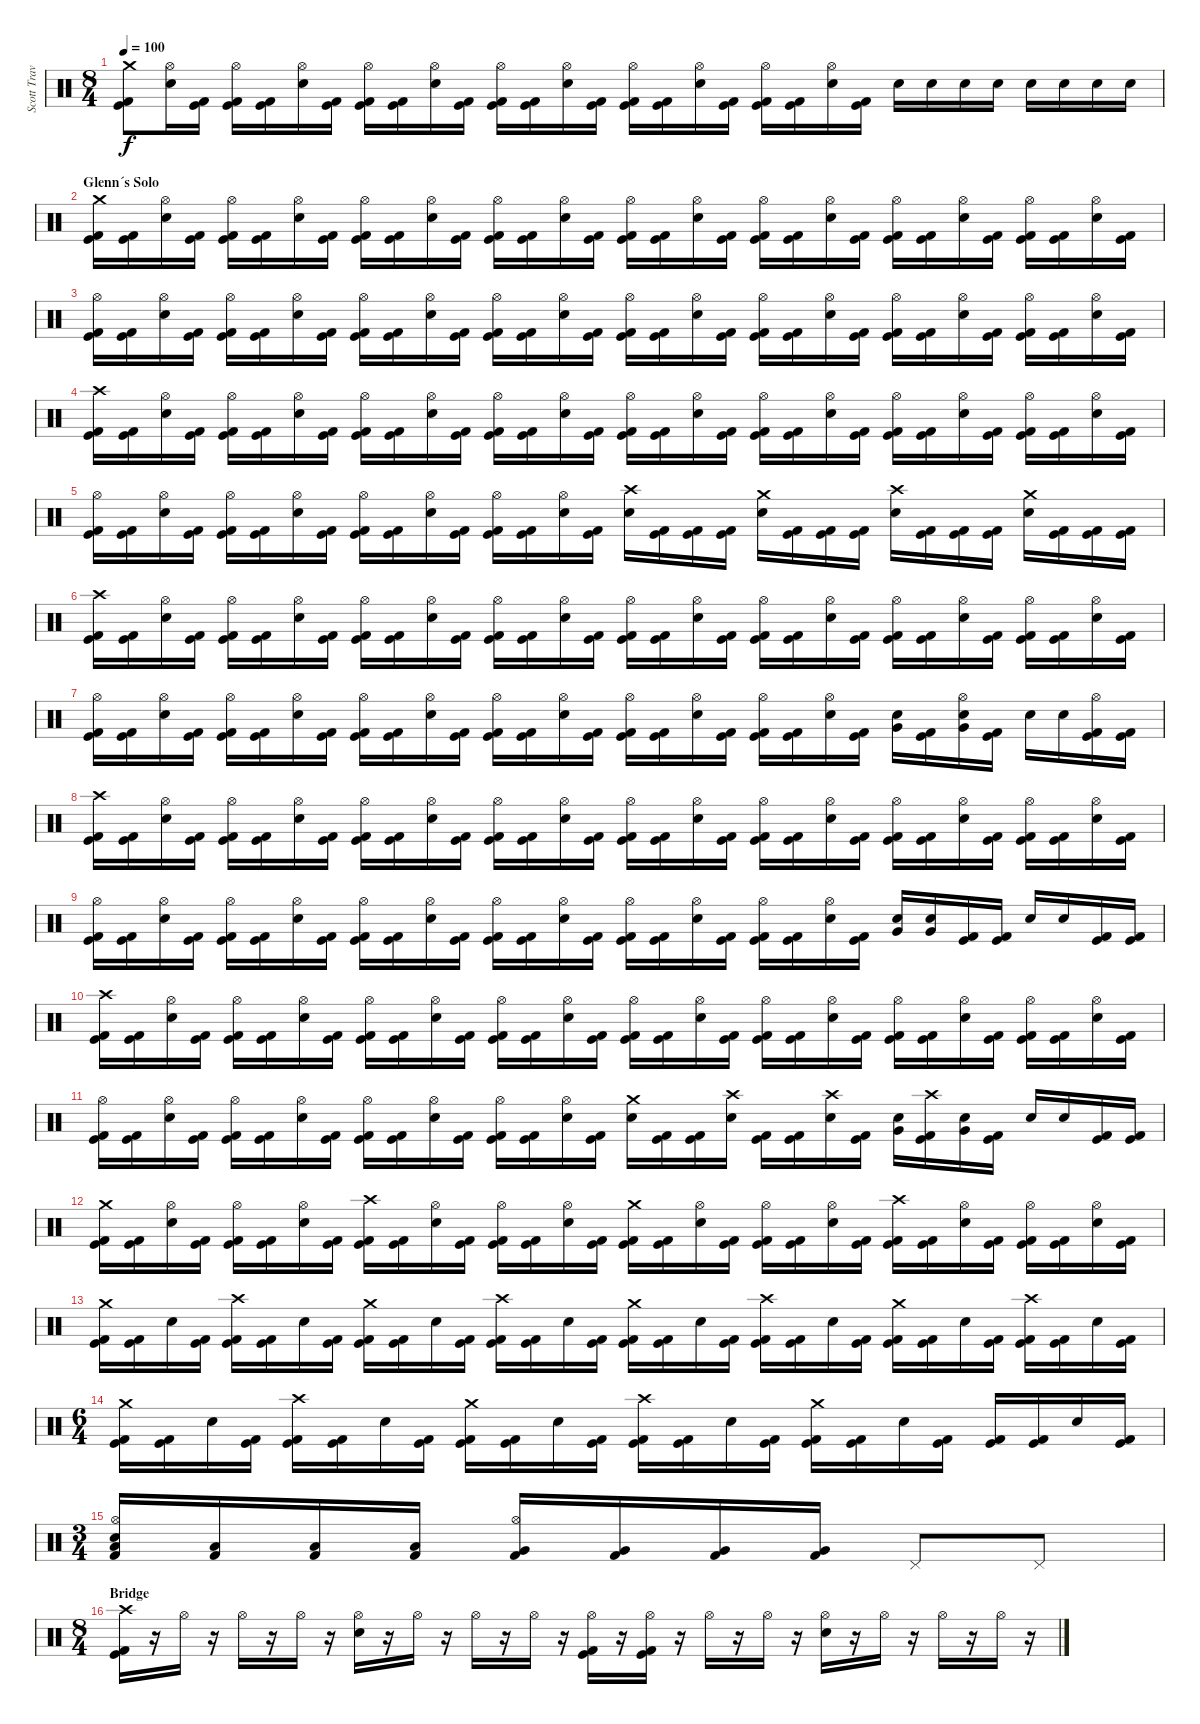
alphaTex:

\track ("Scott Travis" "Scott Trav") {instrument percussion}
\staff {score}
\articulation defaults
\ts (8 4)
\tempo 100
\clef neutral
\ks c
("Crash medium (hit)" "Kick (hit)" "Kick (hit) 2").8{dy f} ("Hi-Hat (open)" "Electric Snare (hit)").16 ("Kick (hit) 2" "Kick (hit)").16 ("Hi-Hat (open)" "Kick (hit) 2" "Kick (hit)").16 ("Kick (hit) 2" "Kick (hit)").16 ("Hi-Hat (open)" "Electric Snare (hit)").16 ("Kick (hit) 2" "Kick (hit)").16 ("Hi-Hat (open)" "Kick (hit) 2" "Kick (hit)").16 ("Kick (hit) 2" "Kick (hit)").16 ("Hi-Hat (open)" "Electric Snare (hit)").16 ("Kick (hit) 2" "Kick (hit)").16 ("Hi-Hat (open)" "Kick (hit) 2" "Kick (hit)").16 ("Kick (hit) 2" "Kick (hit)").16 ("Hi-Hat (open)" "Electric Snare (hit)").16 ("Kick (hit) 2" "Kick (hit)").16 ("Hi-Hat (open)" "Kick (hit) 2" "Kick (hit)").16 ("Kick (hit) 2" "Kick (hit)").16 ("Hi-Hat (open)" "Electric Snare (hit)").16 ("Kick (hit) 2" "Kick (hit)").16 ("Hi-Hat (open)" "Kick (hit) 2" "Kick (hit)").16 ("Kick (hit) 2" "Kick (hit)").16 ("Hi-Hat (open)" "Electric Snare (hit)").16 ("Kick (hit) 2" "Kick (hit)").16 "Electric Snare (hit)".16 "Electric Snare (hit)".16 "Electric Snare (hit)".16 "Electric Snare (hit)".16 "Electric Snare (hit)".16 "Electric Snare (hit)".16 "Electric Snare (hit)".16 "Electric Snare (hit)".16 |
\section ("" "Glenn´s Solo")
("Crash medium (hit)" "Kick (hit) 2" "Kick (hit)").16 ("Kick (hit) 2" "Kick (hit)").16 ("Hi-Hat (open)" "Electric Snare (hit)").16 ("Kick (hit) 2" "Kick (hit)").16 ("Hi-Hat (open)" "Kick (hit) 2" "Kick (hit)").16 ("Kick (hit) 2" "Kick (hit)").16 ("Hi-Hat (open)" "Electric Snare (hit)").16 ("Kick (hit) 2" "Kick (hit)").16 ("Hi-Hat (open)" "Kick (hit) 2" "Kick (hit)").16 ("Kick (hit) 2" "Kick (hit)").16 ("Hi-Hat (open)" "Electric Snare (hit)").16 ("Kick (hit) 2" "Kick (hit)").16 ("Hi-Hat (open)" "Kick (hit) 2" "Kick (hit)").16 ("Kick (hit) 2" "Kick (hit)").16 ("Hi-Hat (open)" "Electric Snare (hit)").16 ("Kick (hit) 2" "Kick (hit)").16 ("Hi-Hat (open)" "Kick (hit) 2" "Kick (hit)").16 ("Kick (hit) 2" "Kick (hit)").16 ("Hi-Hat (open)" "Electric Snare (hit)").16 ("Kick (hit) 2" "Kick (hit)").16 ("Hi-Hat (open)" "Kick (hit) 2" "Kick (hit)").16 ("Kick (hit) 2" "Kick (hit)").16 ("Hi-Hat (open)" "Electric Snare (hit)").16 ("Kick (hit) 2" "Kick (hit)").16 ("Hi-Hat (open)" "Kick (hit) 2" "Kick (hit)").16 ("Kick (hit) 2" "Kick (hit)").16 ("Hi-Hat (open)" "Electric Snare (hit)").16 ("Kick (hit) 2" "Kick (hit)").16 ("Hi-Hat (open)" "Kick (hit) 2" "Kick (hit)").16 ("Kick (hit) 2" "Kick (hit)").16 ("Hi-Hat (open)" "Electric Snare (hit)").16 ("Kick (hit) 2" "Kick (hit)").16 |
("Hi-Hat (open)" "Kick (hit) 2" "Kick (hit)").16 ("Kick (hit) 2" "Kick (hit)").16 ("Hi-Hat (open)" "Electric Snare (hit)").16 ("Kick (hit) 2" "Kick (hit)").16 ("Hi-Hat (open)" "Kick (hit) 2" "Kick (hit)").16 ("Kick (hit) 2" "Kick (hit)").16 ("Hi-Hat (open)" "Electric Snare (hit)").16 ("Kick (hit) 2" "Kick (hit)").16 ("Hi-Hat (open)" "Kick (hit) 2" "Kick (hit)").16 ("Kick (hit) 2" "Kick (hit)").16 ("Hi-Hat (open)" "Electric Snare (hit)").16 ("Kick (hit) 2" "Kick (hit)").16 ("Hi-Hat (open)" "Kick (hit) 2" "Kick (hit)").16 ("Kick (hit) 2" "Kick (hit)").16 ("Hi-Hat (open)" "Electric Snare (hit)").16 ("Kick (hit) 2" "Kick (hit)").16 ("Hi-Hat (open)" "Kick (hit) 2" "Kick (hit)").16 ("Kick (hit) 2" "Kick (hit)").16 ("Hi-Hat (open)" "Electric Snare (hit)").16 ("Kick (hit) 2" "Kick (hit)").16 ("Hi-Hat (open)" "Kick (hit) 2" "Kick (hit)").16 ("Kick (hit) 2" "Kick (hit)").16 ("Hi-Hat (open)" "Electric Snare (hit)").16 ("Kick (hit) 2" "Kick (hit)").16 ("Hi-Hat (open)" "Kick (hit) 2" "Kick (hit)").16 ("Kick (hit) 2" "Kick (hit)").16 ("Hi-Hat (open)" "Electric Snare (hit)").16 ("Kick (hit) 2" "Kick (hit)").16 ("Hi-Hat (open)" "Kick (hit) 2" "Kick (hit)").16 ("Kick (hit) 2" "Kick (hit)").16 ("Hi-Hat (open)" "Electric Snare (hit)").16 ("Kick (hit) 2" "Kick (hit)").16 |
("Crash high (hit)" "Kick (hit) 2" "Kick (hit)").16 ("Kick (hit) 2" "Kick (hit)").16 ("Hi-Hat (open)" "Electric Snare (hit)").16 ("Kick (hit) 2" "Kick (hit)").16 ("Hi-Hat (open)" "Kick (hit) 2" "Kick (hit)").16 ("Kick (hit) 2" "Kick (hit)").16 ("Hi-Hat (open)" "Electric Snare (hit)").16 ("Kick (hit) 2" "Kick (hit)").16 ("Hi-Hat (open)" "Kick (hit) 2" "Kick (hit)").16 ("Kick (hit) 2" "Kick (hit)").16 ("Hi-Hat (open)" "Electric Snare (hit)").16 ("Kick (hit) 2" "Kick (hit)").16 ("Hi-Hat (open)" "Kick (hit) 2" "Kick (hit)").16 ("Kick (hit) 2" "Kick (hit)").16 ("Hi-Hat (open)" "Electric Snare (hit)").16 ("Kick (hit) 2" "Kick (hit)").16 ("Hi-Hat (open)" "Kick (hit) 2" "Kick (hit)").16 ("Kick (hit) 2" "Kick (hit)").16 ("Hi-Hat (open)" "Electric Snare (hit)").16 ("Kick (hit) 2" "Kick (hit)").16 ("Hi-Hat (open)" "Kick (hit) 2" "Kick (hit)").16 ("Kick (hit) 2" "Kick (hit)").16 ("Hi-Hat (open)" "Electric Snare (hit)").16 ("Kick (hit) 2" "Kick (hit)").16 ("Hi-Hat (open)" "Kick (hit) 2" "Kick (hit)").16 ("Kick (hit) 2" "Kick (hit)").16 ("Hi-Hat (open)" "Electric Snare (hit)").16 ("Kick (hit) 2" "Kick (hit)").16 ("Hi-Hat (open)" "Kick (hit) 2" "Kick (hit)").16 ("Kick (hit) 2" "Kick (hit)").16 ("Hi-Hat (open)" "Electric Snare (hit)").16 ("Kick (hit) 2" "Kick (hit)").16 |
("Hi-Hat (open)" "Kick (hit) 2" "Kick (hit)").16 ("Kick (hit) 2" "Kick (hit)").16 ("Hi-Hat (open)" "Electric Snare (hit)").16 ("Kick (hit) 2" "Kick (hit)").16 ("Hi-Hat (open)" "Kick (hit) 2" "Kick (hit)").16 ("Kick (hit) 2" "Kick (hit)").16 ("Hi-Hat (open)" "Electric Snare (hit)").16 ("Kick (hit) 2" "Kick (hit)").16 ("Hi-Hat (open)" "Kick (hit) 2" "Kick (hit)").16 ("Kick (hit) 2" "Kick (hit)").16 ("Hi-Hat (open)" "Electric Snare (hit)").16 ("Kick (hit) 2" "Kick (hit)").16 ("Hi-Hat (open)" "Kick (hit) 2" "Kick (hit)").16 ("Kick (hit) 2" "Kick (hit)").16 ("Hi-Hat (open)" "Electric Snare (hit)").16 ("Kick (hit) 2" "Kick (hit)").16 ("Crash high (hit)" "Electric Snare (hit)").16 ("Kick (hit) 2" "Kick (hit)").16 ("Kick (hit) 2" "Kick (hit)").16 ("Kick (hit) 2" "Kick (hit)").16 ("Crash medium (hit)" "Electric Snare (hit)").16 ("Kick (hit) 2" "Kick (hit)").16 ("Kick (hit)" "Kick (hit) 2").16 ("Kick (hit) 2" "Kick (hit)").16 ("Crash high (hit)" "Electric Snare (hit)").16 ("Kick (hit) 2" "Kick (hit)").16 ("Kick (hit)" "Kick (hit) 2").16 ("Kick (hit) 2" "Kick (hit)").16 ("Crash medium (hit)" "Electric Snare (hit)").16 ("Kick (hit) 2" "Kick (hit)").16 ("Kick (hit) 2" "Kick (hit)").16 ("Kick (hit) 2" "Kick (hit)").16 |
("Crash high (hit)" "Kick (hit) 2" "Kick (hit)").16 ("Kick (hit) 2" "Kick (hit)").16 ("Hi-Hat (open)" "Electric Snare (hit)").16 ("Kick (hit) 2" "Kick (hit)").16 ("Hi-Hat (open)" "Kick (hit) 2" "Kick (hit)").16 ("Kick (hit) 2" "Kick (hit)").16 ("Hi-Hat (open)" "Electric Snare (hit)").16 ("Kick (hit) 2" "Kick (hit)").16 ("Hi-Hat (open)" "Kick (hit) 2" "Kick (hit)").16 ("Kick (hit) 2" "Kick (hit)").16 ("Hi-Hat (open)" "Electric Snare (hit)").16 ("Kick (hit) 2" "Kick (hit)").16 ("Hi-Hat (open)" "Kick (hit) 2" "Kick (hit)").16 ("Kick (hit) 2" "Kick (hit)").16 ("Hi-Hat (open)" "Electric Snare (hit)").16 ("Kick (hit) 2" "Kick (hit)").16 ("Hi-Hat (open)" "Kick (hit) 2" "Kick (hit)").16 ("Kick (hit) 2" "Kick (hit)").16 ("Hi-Hat (open)" "Electric Snare (hit)").16 ("Kick (hit) 2" "Kick (hit)").16 ("Hi-Hat (open)" "Kick (hit) 2" "Kick (hit)").16 ("Kick (hit) 2" "Kick (hit)").16 ("Hi-Hat (open)" "Electric Snare (hit)").16 ("Kick (hit) 2" "Kick (hit)").16 ("Hi-Hat (open)" "Kick (hit) 2" "Kick (hit)").16 ("Kick (hit) 2" "Kick (hit)").16 ("Hi-Hat (open)" "Electric Snare (hit)").16 ("Kick (hit) 2" "Kick (hit)").16 ("Hi-Hat (open)" "Kick (hit) 2" "Kick (hit)").16 ("Kick (hit) 2" "Kick (hit)").16 ("Hi-Hat (open)" "Electric Snare (hit)").16 ("Kick (hit) 2" "Kick (hit)").16 |
("Hi-Hat (open)" "Kick (hit) 2" "Kick (hit)").16 ("Kick (hit) 2" "Kick (hit)").16 ("Hi-Hat (open)" "Electric Snare (hit)").16 ("Kick (hit) 2" "Kick (hit)").16 ("Hi-Hat (open)" "Kick (hit) 2" "Kick (hit)").16 ("Kick (hit) 2" "Kick (hit)").16 ("Hi-Hat (open)" "Electric Snare (hit)").16 ("Kick (hit) 2" "Kick (hit)").16 ("Hi-Hat (open)" "Kick (hit) 2" "Kick (hit)").16 ("Kick (hit) 2" "Kick (hit)").16 ("Hi-Hat (open)" "Electric Snare (hit)").16 ("Kick (hit) 2" "Kick (hit)").16 ("Hi-Hat (open)" "Kick (hit) 2" "Kick (hit)").16 ("Kick (hit) 2" "Kick (hit)").16 ("Hi-Hat (open)" "Electric Snare (hit)").16 ("Kick (hit) 2" "Kick (hit)").16 ("Hi-Hat (open)" "Kick (hit) 2" "Kick (hit)").16 ("Kick (hit) 2" "Kick (hit)").16 ("Hi-Hat (open)" "Electric Snare (hit)").16 ("Kick (hit) 2" "Kick (hit)").16 ("Hi-Hat (open)" "Kick (hit) 2" "Kick (hit)").16 ("Kick (hit) 2" "Kick (hit)").16 ("Hi-Hat (open)" "Electric Snare (hit)").16 ("Kick (hit) 2" "Kick (hit)").16 ("Electric Snare (hit)" "Very Low Tom (hit)").16 ("Kick (hit) 2" "Kick (hit)").16 ("Hi-Hat (open)" "Electric Snare (hit)" "Very Low Tom (hit)").16 ("Kick (hit) 2" "Kick (hit)").16 "Electric Snare (hit)".16 "Electric Snare (hit)".16 ("Hi-Hat (open)" "Kick (hit)" "Kick (hit) 2").16 ("Kick (hit) 2" "Kick (hit)").16 |
("Crash high (hit)" "Kick (hit) 2" "Kick (hit)").16 ("Kick (hit) 2" "Kick (hit)").16 ("Hi-Hat (open)" "Electric Snare (hit)").16 ("Kick (hit) 2" "Kick (hit)").16 ("Hi-Hat (open)" "Kick (hit) 2" "Kick (hit)").16 ("Kick (hit) 2" "Kick (hit)").16 ("Hi-Hat (open)" "Electric Snare (hit)").16 ("Kick (hit) 2" "Kick (hit)").16 ("Hi-Hat (open)" "Kick (hit) 2" "Kick (hit)").16 ("Kick (hit) 2" "Kick (hit)").16 ("Hi-Hat (open)" "Electric Snare (hit)").16 ("Kick (hit) 2" "Kick (hit)").16 ("Hi-Hat (open)" "Kick (hit) 2" "Kick (hit)").16 ("Kick (hit) 2" "Kick (hit)").16 ("Hi-Hat (open)" "Electric Snare (hit)").16 ("Kick (hit) 2" "Kick (hit)").16 ("Hi-Hat (open)" "Kick (hit) 2" "Kick (hit)").16 ("Kick (hit) 2" "Kick (hit)").16 ("Hi-Hat (open)" "Electric Snare (hit)").16 ("Kick (hit) 2" "Kick (hit)").16 ("Hi-Hat (open)" "Kick (hit) 2" "Kick (hit)").16 ("Kick (hit) 2" "Kick (hit)").16 ("Hi-Hat (open)" "Electric Snare (hit)").16 ("Kick (hit) 2" "Kick (hit)").16 ("Hi-Hat (open)" "Kick (hit) 2" "Kick (hit)").16 ("Kick (hit) 2" "Kick (hit)").16 ("Hi-Hat (open)" "Electric Snare (hit)").16 ("Kick (hit) 2" "Kick (hit)").16 ("Hi-Hat (open)" "Kick (hit) 2" "Kick (hit)").16 ("Kick (hit) 2" "Kick (hit)").16 ("Hi-Hat (open)" "Electric Snare (hit)").16 ("Kick (hit) 2" "Kick (hit)").16 |
("Hi-Hat (open)" "Kick (hit) 2" "Kick (hit)").16 ("Kick (hit) 2" "Kick (hit)").16 ("Hi-Hat (open)" "Electric Snare (hit)").16 ("Kick (hit) 2" "Kick (hit)").16 ("Hi-Hat (open)" "Kick (hit) 2" "Kick (hit)").16 ("Kick (hit) 2" "Kick (hit)").16 ("Hi-Hat (open)" "Electric Snare (hit)").16 ("Kick (hit) 2" "Kick (hit)").16 ("Hi-Hat (open)" "Kick (hit) 2" "Kick (hit)").16 ("Kick (hit) 2" "Kick (hit)").16 ("Hi-Hat (open)" "Electric Snare (hit)").16 ("Kick (hit) 2" "Kick (hit)").16 ("Hi-Hat (open)" "Kick (hit) 2" "Kick (hit)").16 ("Kick (hit) 2" "Kick (hit)").16 ("Hi-Hat (open)" "Electric Snare (hit)").16 ("Kick (hit) 2" "Kick (hit)").16 ("Hi-Hat (open)" "Kick (hit) 2" "Kick (hit)").16 ("Kick (hit) 2" "Kick (hit)").16 ("Hi-Hat (open)" "Electric Snare (hit)").16 ("Kick (hit) 2" "Kick (hit)").16 ("Hi-Hat (open)" "Kick (hit) 2" "Kick (hit)").16 ("Kick (hit) 2" "Kick (hit)").16 ("Hi-Hat (open)" "Electric Snare (hit)").16 ("Kick (hit) 2" "Kick (hit)").16 ("Electric Snare (hit)" "Very Low Tom (hit)").16 ("Electric Snare (hit)" "Very Low Tom (hit)").16 ("Kick (hit)" "Kick (hit) 2").16 ("Kick (hit) 2" "Kick (hit)").16 "Electric Snare (hit)".16 "Electric Snare (hit)".16 ("Kick (hit)" "Kick (hit) 2").16 ("Kick (hit) 2" "Kick (hit)").16 |
("Crash high (hit)" "Kick (hit) 2" "Kick (hit)").16 ("Kick (hit) 2" "Kick (hit)").16 ("Hi-Hat (open)" "Electric Snare (hit)").16 ("Kick (hit) 2" "Kick (hit)").16 ("Hi-Hat (open)" "Kick (hit) 2" "Kick (hit)").16 ("Kick (hit) 2" "Kick (hit)").16 ("Hi-Hat (open)" "Electric Snare (hit)").16 ("Kick (hit) 2" "Kick (hit)").16 ("Hi-Hat (open)" "Kick (hit) 2" "Kick (hit)").16 ("Kick (hit) 2" "Kick (hit)").16 ("Hi-Hat (open)" "Electric Snare (hit)").16 ("Kick (hit) 2" "Kick (hit)").16 ("Hi-Hat (open)" "Kick (hit) 2" "Kick (hit)").16 ("Kick (hit) 2" "Kick (hit)").16 ("Hi-Hat (open)" "Electric Snare (hit)").16 ("Kick (hit) 2" "Kick (hit)").16 ("Hi-Hat (open)" "Kick (hit) 2" "Kick (hit)").16 ("Kick (hit) 2" "Kick (hit)").16 ("Hi-Hat (open)" "Electric Snare (hit)").16 ("Kick (hit) 2" "Kick (hit)").16 ("Hi-Hat (open)" "Kick (hit) 2" "Kick (hit)").16 ("Kick (hit) 2" "Kick (hit)").16 ("Hi-Hat (open)" "Electric Snare (hit)").16 ("Kick (hit) 2" "Kick (hit)").16 ("Hi-Hat (open)" "Kick (hit) 2" "Kick (hit)").16 ("Kick (hit) 2" "Kick (hit)").16 ("Hi-Hat (open)" "Electric Snare (hit)").16 ("Kick (hit) 2" "Kick (hit)").16 ("Hi-Hat (open)" "Kick (hit) 2" "Kick (hit)").16 ("Kick (hit) 2" "Kick (hit)").16 ("Hi-Hat (open)" "Electric Snare (hit)").16 ("Kick (hit) 2" "Kick (hit)").16 |
("Hi-Hat (open)" "Kick (hit) 2" "Kick (hit)").16 ("Kick (hit) 2" "Kick (hit)").16 ("Hi-Hat (open)" "Electric Snare (hit)").16 ("Kick (hit) 2" "Kick (hit)").16 ("Hi-Hat (open)" "Kick (hit) 2" "Kick (hit)").16 ("Kick (hit) 2" "Kick (hit)").16 ("Hi-Hat (open)" "Electric Snare (hit)").16 ("Kick (hit) 2" "Kick (hit)").16 ("Hi-Hat (open)" "Kick (hit) 2" "Kick (hit)").16 ("Kick (hit) 2" "Kick (hit)").16 ("Hi-Hat (open)" "Electric Snare (hit)").16 ("Kick (hit) 2" "Kick (hit)").16 ("Hi-Hat (open)" "Kick (hit) 2" "Kick (hit)").16 ("Kick (hit) 2" "Kick (hit)").16 ("Hi-Hat (open)" "Electric Snare (hit)").16 ("Kick (hit) 2" "Kick (hit)").16 ("Crash medium (hit)" "Electric Snare (hit)").16 ("Kick (hit) 2" "Kick (hit)").16 ("Kick (hit)" "Kick (hit) 2").16 ("Crash high (hit)" "Electric Snare (hit)").16 ("Kick (hit) 2" "Kick (hit)").16 ("Kick (hit) 2" "Kick (hit)").16 ("Crash high (hit)" "Electric Snare (hit)").16 ("Kick (hit) 2" "Kick (hit)").16 ("Electric Snare (hit)" "Very Low Tom (hit)").16 ("Crash high (hit)" "Kick (hit) 2" "Kick (hit)").16 ("Electric Snare (hit)" "Very Low Tom (hit)").16 ("Kick (hit) 2" "Kick (hit)").16 "Electric Snare (hit)".16 "Electric Snare (hit)".16 ("Kick (hit)" "Kick (hit) 2").16 ("Kick (hit) 2" "Kick (hit)").16 |
("Crash medium (hit)" "Kick (hit) 2" "Kick (hit)").16 ("Kick (hit) 2" "Kick (hit)").16 ("Hi-Hat (open)" "Electric Snare (hit)").16 ("Kick (hit) 2" "Kick (hit)").16 ("Hi-Hat (open)" "Kick (hit) 2" "Kick (hit)").16 ("Kick (hit) 2" "Kick (hit)").16 ("Hi-Hat (open)" "Electric Snare (hit)").16 ("Kick (hit) 2" "Kick (hit)").16 ("Crash high (hit)" "Kick (hit) 2" "Kick (hit)").16 ("Kick (hit) 2" "Kick (hit)").16 ("Hi-Hat (open)" "Electric Snare (hit)").16 ("Kick (hit) 2" "Kick (hit)").16 ("Hi-Hat (open)" "Kick (hit) 2" "Kick (hit)").16 ("Kick (hit) 2" "Kick (hit)").16 ("Hi-Hat (open)" "Electric Snare (hit)").16 ("Kick (hit) 2" "Kick (hit)").16 ("Crash medium (hit)" "Kick (hit) 2" "Kick (hit)").16 ("Kick (hit) 2" "Kick (hit)").16 ("Hi-Hat (open)" "Electric Snare (hit)").16 ("Kick (hit) 2" "Kick (hit)").16 ("Hi-Hat (open)" "Kick (hit) 2" "Kick (hit)").16 ("Kick (hit) 2" "Kick (hit)").16 ("Hi-Hat (open)" "Electric Snare (hit)").16 ("Kick (hit) 2" "Kick (hit)").16 ("Crash high (hit)" "Kick (hit) 2" "Kick (hit)").16 ("Kick (hit) 2" "Kick (hit)").16 ("Hi-Hat (open)" "Electric Snare (hit)").16 ("Kick (hit) 2" "Kick (hit)").16 ("Hi-Hat (open)" "Kick (hit) 2" "Kick (hit)").16 ("Kick (hit) 2" "Kick (hit)").16 ("Hi-Hat (open)" "Electric Snare (hit)").16 ("Kick (hit) 2" "Kick (hit)").16 |
("Crash medium (hit)" "Kick (hit) 2" "Kick (hit)").16 ("Kick (hit) 2" "Kick (hit)").16 "Electric Snare (hit)".16 ("Kick (hit) 2" "Kick (hit)").16 ("Crash high (hit)" "Kick (hit) 2" "Kick (hit)").16 ("Kick (hit) 2" "Kick (hit)").16 "Electric Snare (hit)".16 ("Kick (hit) 2" "Kick (hit)").16 ("Crash medium (hit)" "Kick (hit) 2" "Kick (hit)").16 ("Kick (hit) 2" "Kick (hit)").16 "Electric Snare (hit)".16 ("Kick (hit) 2" "Kick (hit)").16 ("Crash high (hit)" "Kick (hit) 2" "Kick (hit)").16 ("Kick (hit) 2" "Kick (hit)").16 "Electric Snare (hit)".16 ("Kick (hit) 2" "Kick (hit)").16 ("Crash medium (hit)" "Kick (hit) 2" "Kick (hit)").16 ("Kick (hit) 2" "Kick (hit)").16 "Electric Snare (hit)".16 ("Kick (hit) 2" "Kick (hit)").16 ("Crash high (hit)" "Kick (hit) 2" "Kick (hit)").16 ("Kick (hit) 2" "Kick (hit)").16 "Electric Snare (hit)".16 ("Kick (hit) 2" "Kick (hit)").16 ("Crash medium (hit)" "Kick (hit) 2" "Kick (hit)").16 ("Kick (hit) 2" "Kick (hit)").16 "Electric Snare (hit)".16 ("Kick (hit) 2" "Kick (hit)").16 ("Crash high (hit)" "Kick (hit) 2" "Kick (hit)").16 ("Kick (hit) 2" "Kick (hit)").16 "Electric Snare (hit)".16 ("Kick (hit) 2" "Kick (hit)").16 |
\ts (6 4)
("Crash medium (hit)" "Kick (hit) 2" "Kick (hit)").16 ("Kick (hit) 2" "Kick (hit)").16 "Electric Snare (hit)".16 ("Kick (hit) 2" "Kick (hit)").16 ("Crash high (hit)" "Kick (hit) 2" "Kick (hit)").16 ("Kick (hit) 2" "Kick (hit)").16 "Electric Snare (hit)".16 ("Kick (hit) 2" "Kick (hit)").16 ("Crash medium (hit)" "Kick (hit) 2" "Kick (hit)").16 ("Kick (hit) 2" "Kick (hit)").16 "Electric Snare (hit)".16 ("Kick (hit) 2" "Kick (hit)").16 ("Crash high (hit)" "Kick (hit) 2" "Kick (hit)").16 ("Kick (hit) 2" "Kick (hit)").16 "Electric Snare (hit)".16 ("Kick (hit) 2" "Kick (hit)").16 ("Crash medium (hit)" "Kick (hit) 2" "Kick (hit)").16 ("Kick (hit) 2" "Kick (hit)").16 "Electric Snare (hit)".16 ("Kick (hit) 2" "Kick (hit)").16 ("Kick (hit) 2" "Kick (hit)").16 ("Kick (hit) 2" "Kick (hit)").16 "Electric Snare (hit)".16 ("Kick (hit) 2" "Kick (hit)").16 |
\ts (3 4)
("Low Tom (hit)" "Hi-Hat (open)" "Electric Snare (hit)" "Kick (hit) 2").16 ("Low Tom (hit)" "Kick (hit) 2").16 ("Low Tom (hit)" "Kick (hit) 2").16 ("Low Tom (hit)" "Kick (hit) 2").16 ("Very Low Tom (hit)" "Hi-Hat (open)" "Kick (hit) 2").16 ("Very Low Tom (hit)" "Kick (hit) 2").16 ("Very Low Tom (hit)" "Kick (hit) 2").16 ("Very Low Tom (hit)" "Kick (hit) 2").16 "Pedal Hi-Hat (hit)".8 "Pedal Hi-Hat (hit)".8 |
\ts (8 4)
\section ("" "Bridge")
("Crash high (hit)" "Kick (hit)" "Kick (hit) 2").16 r.16 "Hi-Hat (open)".16 r.16 "Hi-Hat (open)".16 r.16 "Hi-Hat (open)".16 r.16 ("Hi-Hat (open)" "Electric Snare (hit)").16 r.16 "Hi-Hat (open)".16 r.16 "Hi-Hat (open)".16 r.16 "Hi-Hat (open)".16 r.16 ("Hi-Hat (open)" "Kick (hit)" "Kick (hit) 2").16 r.16 ("Hi-Hat (open)" "Kick (hit)" "Kick (hit) 2").16 r.16 "Hi-Hat (open)".16 r.16 "Hi-Hat (open)".16 r.16 ("Hi-Hat (open)" "Electric Snare (hit)").16 r.16 "Hi-Hat (open)".16 r.16 "Hi-Hat (open)".16 r.16 "Hi-Hat (open)".16 r.16
